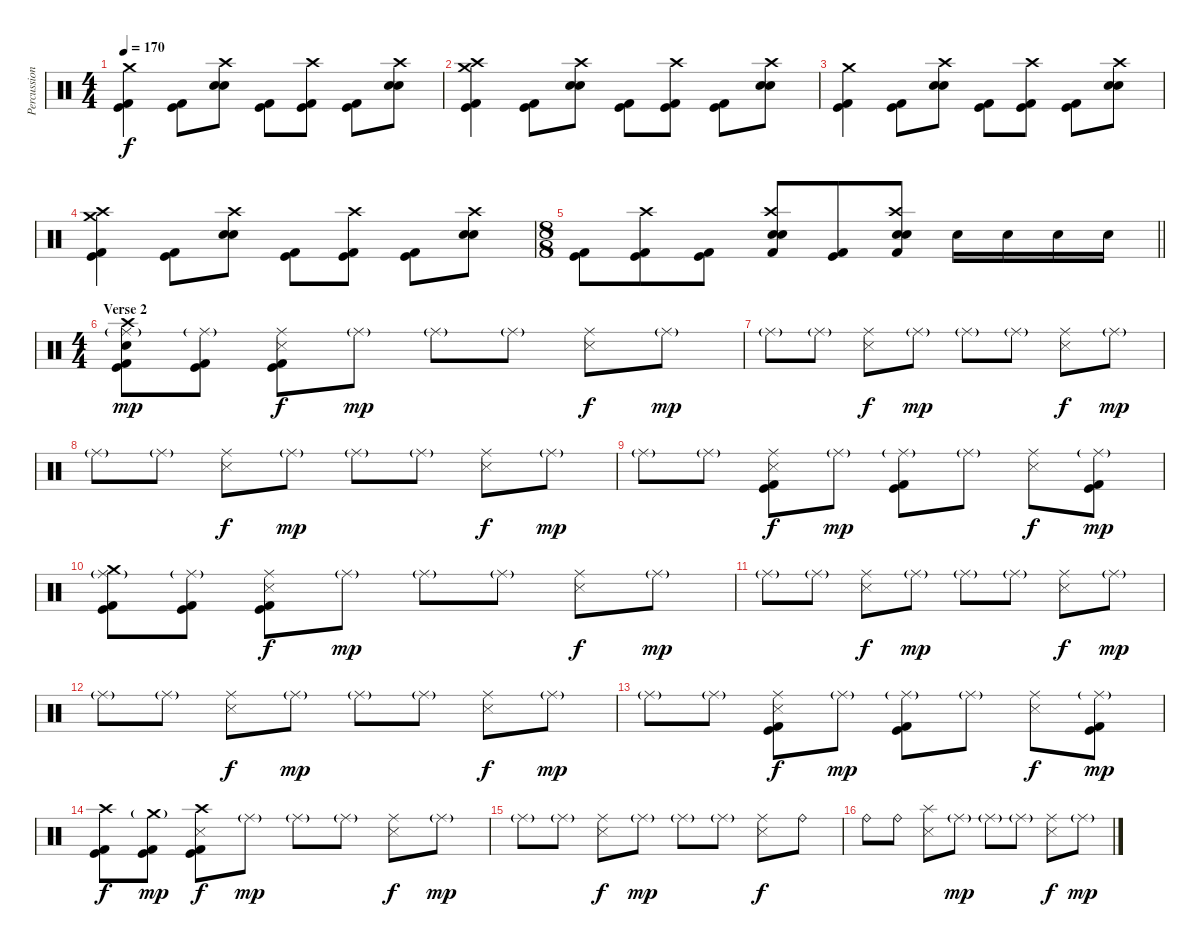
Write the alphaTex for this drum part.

\track ("Percussion" "Percussion") {instrument percussion}
\staff {score}
\articulation defaults
\ts (4 4)
\tempo 170
\clef neutral
\ks c
("Crash medium (hit)" "Kick (hit)" "Kick (hit) 2").4{dy f} ("Kick (hit)" "Kick (hit) 2").8 ("Crash high (hit)" "Snare (hit) 2" "Electric Snare (hit)").8 ("Kick (hit)" "Kick (hit) 2").8 ("Crash high (hit)" "Kick (hit)" "Kick (hit) 2").8 ("Kick (hit)" "Kick (hit) 2").8 ("Crash high (hit)" "Snare (hit) 2" "Electric Snare (hit)").8 |
("Crash medium (hit)" "Crash high (hit)" "Kick (hit)" "Kick (hit) 2").4 ("Kick (hit)" "Kick (hit) 2").8 ("Crash high (hit)" "Snare (hit) 2" "Electric Snare (hit)").8 ("Kick (hit)" "Kick (hit) 2").8 ("Crash high (hit)" "Kick (hit)" "Kick (hit) 2").8 ("Kick (hit)" "Kick (hit) 2").8 ("Crash high (hit)" "Snare (hit) 2" "Electric Snare (hit)").8 |
("Crash medium (hit)" "Kick (hit)" "Kick (hit) 2").4 ("Kick (hit)" "Kick (hit) 2").8 ("Crash high (hit)" "Snare (hit) 2" "Electric Snare (hit)").8 ("Kick (hit)" "Kick (hit) 2").8 ("Crash high (hit)" "Kick (hit)" "Kick (hit) 2").8 ("Kick (hit)" "Kick (hit) 2").8 ("Crash high (hit)" "Snare (hit) 2" "Electric Snare (hit)").8 |
("Crash medium (hit)" "Crash high (hit)" "Kick (hit)" "Kick (hit) 2").4 ("Kick (hit)" "Kick (hit) 2").8 ("Crash high (hit)" "Snare (hit) 2" "Electric Snare (hit)").8 ("Kick (hit)" "Kick (hit) 2").8 ("Crash high (hit)" "Kick (hit)" "Kick (hit) 2").8 ("Kick (hit)" "Kick (hit) 2").8 ("Crash high (hit)" "Snare (hit) 2" "Electric Snare (hit)").8 |
\ts (8 8)
\barLineRight lightlight
("Kick (hit)" "Kick (hit) 2").8 ("Crash high (hit)" "Kick (hit)" "Kick (hit) 2").8 ("Kick (hit)" "Kick (hit) 2").8 ("Crash high (hit)" "Electric Snare (hit)" "Snare (hit) 2" "Kick (hit) 2").8 ("Kick (hit)" "Kick (hit) 2").8 ("Crash high (hit)" "Electric Snare (hit)" "Snare (hit) 2" "Kick (hit) 2").8 "Electric Snare (hit)".16 "Electric Snare (hit)".16 "Electric Snare (hit)".16 "Electric Snare (hit)".16 |
\ts (4 4)
\section ("" "Verse 2")
("Ride (middle)"{g} "Crash high (hit)" "Snare (hit)" "Kick (hit)" "Kick (hit) 2").8{dy mp} ("Ride (middle)"{g} "Kick (hit)" "Kick (hit) 2").8 ("Ride (middle)" "Snare (side stick) 3" "Kick (hit)" "Kick (hit) 2").8{dy f} "Ride (middle)"{g}.8{dy mp} "Ride (middle)"{g}.8 "Ride (middle)"{g}.8 ("Ride (middle)" "Snare (side stick) 3").8{dy f} "Ride (middle)"{g}.8{dy mp} |
"Ride (middle)"{g}.8 "Ride (middle)"{g}.8 ("Ride (middle)" "Snare (side stick) 3").8{dy f} "Ride (middle)"{g}.8{dy mp} "Ride (middle)"{g}.8 "Ride (middle)"{g}.8 ("Ride (middle)" "Snare (side stick) 3").8{dy f} "Ride (middle)"{g}.8{dy mp} |
"Ride (middle)"{g}.8 "Ride (middle)"{g}.8 ("Ride (middle)" "Snare (side stick) 3").8{dy f} "Ride (middle)"{g}.8{dy mp} "Ride (middle)"{g}.8 "Ride (middle)"{g}.8 ("Ride (middle)" "Snare (side stick) 3").8{dy f} "Ride (middle)"{g}.8{dy mp} |
"Ride (middle)"{g}.8 "Ride (middle)"{g}.8 ("Ride (middle)" "Snare (side stick) 3" "Kick (hit)" "Kick (hit) 2").8{dy f} "Ride (middle)"{g}.8{dy mp} ("Ride (middle)"{g} "Kick (hit)" "Kick (hit) 2").8 "Ride (middle)"{g}.8 ("Ride (middle)" "Snare (side stick) 3").8{dy f} ("Ride (middle)"{g} "Kick (hit)" "Kick (hit) 2").8{dy mp} |
("Ride (middle)"{g} "Crash medium (hit)" "Kick (hit)" "Kick (hit) 2").8 ("Ride (middle)"{g} "Kick (hit)" "Kick (hit) 2").8 ("Ride (middle)" "Snare (side stick) 3" "Kick (hit)" "Kick (hit) 2").8{dy f} "Ride (middle)"{g}.8{dy mp} "Ride (middle)"{g}.8 "Ride (middle)"{g}.8 ("Ride (middle)" "Snare (side stick) 3").8{dy f} "Ride (middle)"{g}.8{dy mp} |
"Ride (middle)"{g}.8 "Ride (middle)"{g}.8 ("Ride (middle)" "Snare (side stick) 3").8{dy f} "Ride (middle)"{g}.8{dy mp} "Ride (middle)"{g}.8 "Ride (middle)"{g}.8 ("Ride (middle)" "Snare (side stick) 3").8{dy f} "Ride (middle)"{g}.8{dy mp} |
"Ride (middle)"{g}.8 "Ride (middle)"{g}.8 ("Ride (middle)" "Snare (side stick) 3").8{dy f} "Ride (middle)"{g}.8{dy mp} "Ride (middle)"{g}.8 "Ride (middle)"{g}.8 ("Ride (middle)" "Snare (side stick) 3").8{dy f} "Ride (middle)"{g}.8{dy mp} |
"Ride (middle)"{g}.8 "Ride (middle)"{g}.8 ("Ride (middle)" "Snare (side stick) 3" "Kick (hit)" "Kick (hit) 2").8{dy f} "Ride (middle)"{g}.8{dy mp} ("Ride (middle)"{g} "Kick (hit)" "Kick (hit) 2").8 "Ride (middle)"{g}.8 ("Ride (middle)" "Snare (side stick) 3").8{dy f} ("Ride (middle)"{g} "Kick (hit)" "Kick (hit) 2").8{dy mp} |
("Crash high (hit)" "Kick (hit)" "Kick (hit) 2").8{dy f} ("Crash medium (hit)"{g} "Kick (hit)" "Kick (hit) 2").8{dy mp} ("Crash high (hit)" "Snare (side stick) 3" "Kick (hit)" "Kick (hit) 2").8{dy f} "Ride (middle)"{g}.8{dy mp} "Ride (middle)"{g}.8 "Ride (middle)"{g}.8 ("Ride (middle)" "Snare (side stick) 3").8{dy f} "Ride (middle)"{g}.8{dy mp} |
"Ride (middle)"{g}.8 "Ride (middle)"{g}.8 ("Ride (middle)" "Snare (side stick) 3").8{dy f} "Ride (middle)"{g}.8{dy mp} "Ride (middle)"{g}.8 "Ride (middle)"{g}.8 ("Ride (middle)" "Snare (side stick) 3").8{dy f} "Ride (bell)".8 |
"Ride (bell)".8 "Ride (bell)".8 ("Splash (hit)" "Snare (side stick) 3").8 "Ride (middle)"{g}.8{dy mp} "Ride (middle)"{g}.8 "Ride (middle)"{g}.8 ("Ride (middle)" "Snare (side stick) 3").8{dy f} "Ride (middle)"{g}.8{dy mp}
